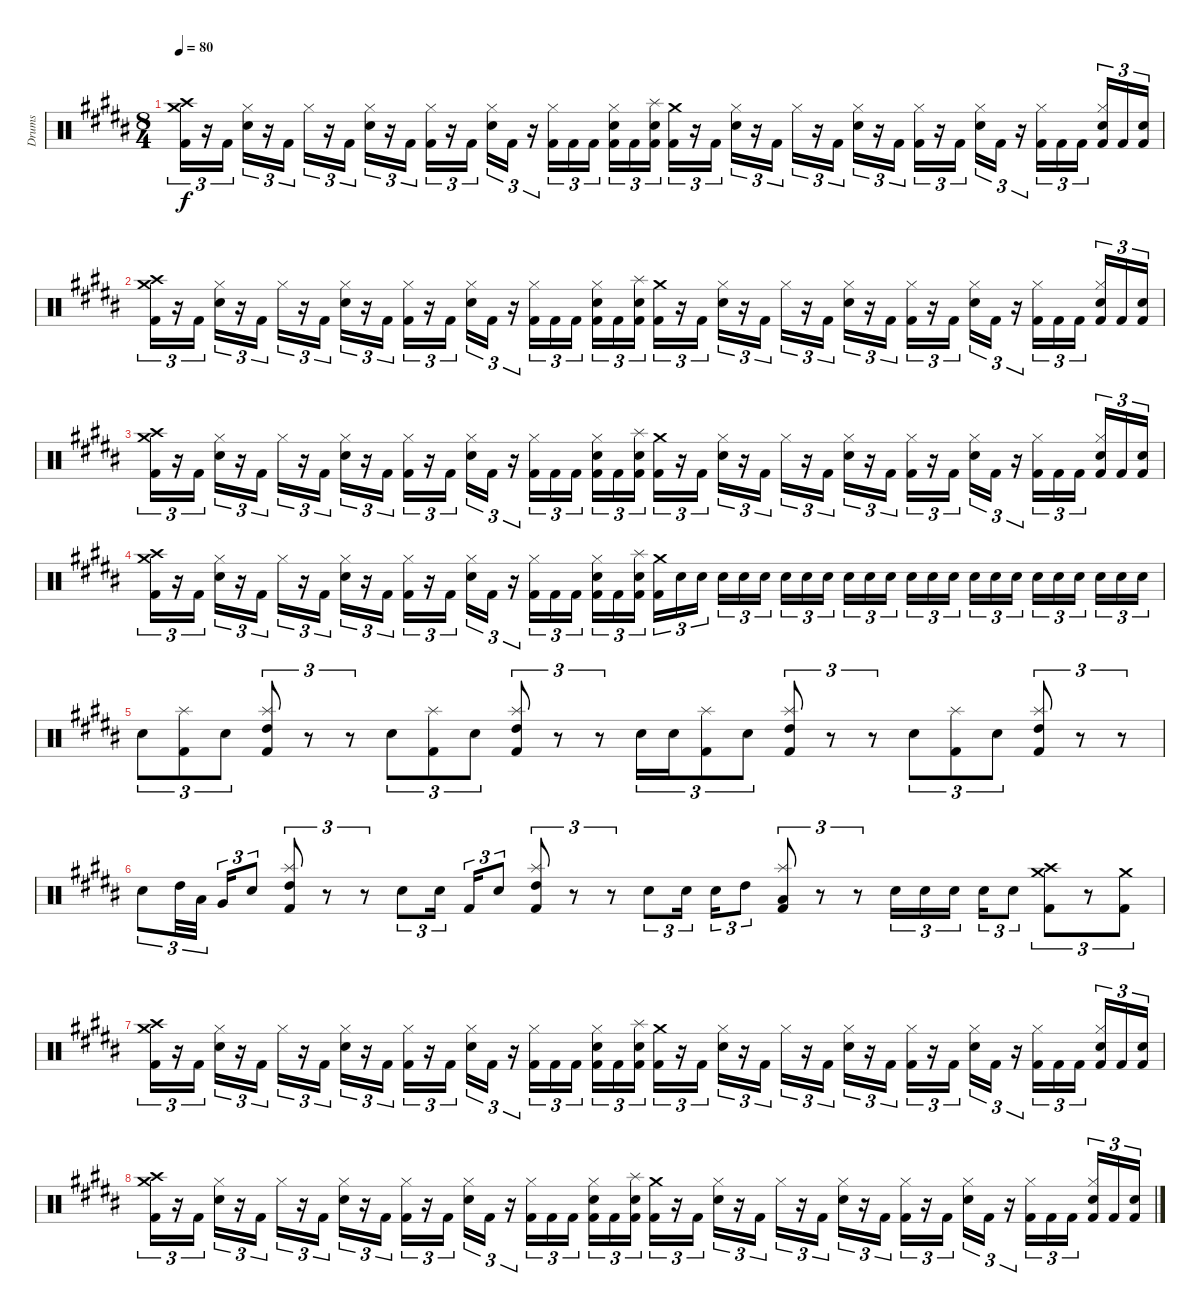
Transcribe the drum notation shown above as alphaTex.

\track ("Drums" "Drums") {instrument percussion}
\staff {score}
\articulation defaults
\ts (8 4)
\tempo 80
\clef neutral
\ks g#minor
("Crash medium (hit)" "Crash high (hit)" "Kick (hit) 2").16{tu (3 2) dy f} r.16{tu (3 2)} "Kick (hit) 2".16{tu (3 2)} ("Hi-Hat (closed)" "Snare (hit) 2").16{tu (3 2)} r.16{tu (3 2)} "Kick (hit) 2".16{tu (3 2)} "Hi-Hat (closed)".16{tu (3 2)} r.16{tu (3 2)} "Kick (hit) 2".16{tu (3 2)} ("Hi-Hat (closed)" "Snare (hit) 2").16{tu (3 2)} r.16{tu (3 2)} "Kick (hit) 2".16{tu (3 2)} ("Hi-Hat (closed)" "Kick (hit) 2").16{tu (3 2)} r.16{tu (3 2)} "Kick (hit) 2".16{tu (3 2)} ("Hi-Hat (closed)" "Snare (hit) 2").16{tu (3 2)} "Kick (hit) 2".16{tu (3 2)} r.16{tu (3 2)} ("Hi-Hat (closed)" "Kick (hit) 2").16{tu (3 2)} "Kick (hit) 2".16{tu (3 2)} "Kick (hit) 2".16{tu (3 2)} ("Hi-Hat (closed)" "Snare (hit) 2" "Kick (hit) 2").16{tu (3 2)} "Kick (hit) 2".16{tu (3 2)} ("Splash (hit)" "Snare (hit) 2" "Kick (hit) 2").16{tu (3 2)} ("Crash medium (hit)" "Kick (hit) 2").16{tu (3 2)} r.16{tu (3 2)} "Kick (hit) 2".16{tu (3 2)} ("Hi-Hat (closed)" "Snare (hit) 2").16{tu (3 2)} r.16{tu (3 2)} "Kick (hit) 2".16{tu (3 2)} "Hi-Hat (closed)".16{tu (3 2)} r.16{tu (3 2)} "Kick (hit) 2".16{tu (3 2)} ("Hi-Hat (closed)" "Snare (hit) 2").16{tu (3 2)} r.16{tu (3 2)} "Kick (hit) 2".16{tu (3 2)} ("Hi-Hat (closed)" "Kick (hit) 2").16{tu (3 2)} r.16{tu (3 2)} "Kick (hit) 2".16{tu (3 2)} ("Hi-Hat (closed)" "Snare (hit) 2").16{tu (3 2)} "Kick (hit) 2".16{tu (3 2)} r.16{tu (3 2)} ("Hi-Hat (closed)" "Kick (hit) 2").16{tu (3 2)} "Kick (hit) 2".16{tu (3 2)} "Kick (hit) 2".16{tu (3 2)} ("Hi-Hat (closed)" "Snare (hit) 2" "Kick (hit) 2").16{tu (3 2)} "Kick (hit) 2".16{tu (3 2)} ("Snare (hit) 2" "Kick (hit) 2").16{tu (3 2)} |
("Crash medium (hit)" "Crash high (hit)" "Kick (hit) 2").16{tu (3 2)} r.16{tu (3 2)} "Kick (hit) 2".16{tu (3 2)} ("Hi-Hat (closed)" "Snare (hit) 2").16{tu (3 2)} r.16{tu (3 2)} "Kick (hit) 2".16{tu (3 2)} "Hi-Hat (closed)".16{tu (3 2)} r.16{tu (3 2)} "Kick (hit) 2".16{tu (3 2)} ("Hi-Hat (closed)" "Snare (hit) 2").16{tu (3 2)} r.16{tu (3 2)} "Kick (hit) 2".16{tu (3 2)} ("Hi-Hat (closed)" "Kick (hit) 2").16{tu (3 2)} r.16{tu (3 2)} "Kick (hit) 2".16{tu (3 2)} ("Hi-Hat (closed)" "Snare (hit) 2").16{tu (3 2)} "Kick (hit) 2".16{tu (3 2)} r.16{tu (3 2)} ("Hi-Hat (closed)" "Kick (hit) 2").16{tu (3 2)} "Kick (hit) 2".16{tu (3 2)} "Kick (hit) 2".16{tu (3 2)} ("Hi-Hat (closed)" "Snare (hit) 2" "Kick (hit) 2").16{tu (3 2)} "Kick (hit) 2".16{tu (3 2)} ("Splash (hit)" "Snare (hit) 2" "Kick (hit) 2").16{tu (3 2)} ("Crash medium (hit)" "Kick (hit) 2").16{tu (3 2)} r.16{tu (3 2)} "Kick (hit) 2".16{tu (3 2)} ("Hi-Hat (closed)" "Snare (hit) 2").16{tu (3 2)} r.16{tu (3 2)} "Kick (hit) 2".16{tu (3 2)} "Hi-Hat (closed)".16{tu (3 2)} r.16{tu (3 2)} "Kick (hit) 2".16{tu (3 2)} ("Hi-Hat (closed)" "Snare (hit) 2").16{tu (3 2)} r.16{tu (3 2)} "Kick (hit) 2".16{tu (3 2)} ("Hi-Hat (closed)" "Kick (hit) 2").16{tu (3 2)} r.16{tu (3 2)} "Kick (hit) 2".16{tu (3 2)} ("Hi-Hat (closed)" "Snare (hit) 2").16{tu (3 2)} "Kick (hit) 2".16{tu (3 2)} r.16{tu (3 2)} ("Hi-Hat (closed)" "Kick (hit) 2").16{tu (3 2)} "Kick (hit) 2".16{tu (3 2)} "Kick (hit) 2".16{tu (3 2)} ("Hi-Hat (closed)" "Snare (hit) 2" "Kick (hit) 2").16{tu (3 2)} "Kick (hit) 2".16{tu (3 2)} ("Snare (hit) 2" "Kick (hit) 2").16{tu (3 2)} |
("Crash medium (hit)" "Crash high (hit)" "Kick (hit) 2").16{tu (3 2)} r.16{tu (3 2)} "Kick (hit) 2".16{tu (3 2)} ("Hi-Hat (closed)" "Snare (hit) 2").16{tu (3 2)} r.16{tu (3 2)} "Kick (hit) 2".16{tu (3 2)} "Hi-Hat (closed)".16{tu (3 2)} r.16{tu (3 2)} "Kick (hit) 2".16{tu (3 2)} ("Hi-Hat (closed)" "Snare (hit) 2").16{tu (3 2)} r.16{tu (3 2)} "Kick (hit) 2".16{tu (3 2)} ("Hi-Hat (closed)" "Kick (hit) 2").16{tu (3 2)} r.16{tu (3 2)} "Kick (hit) 2".16{tu (3 2)} ("Hi-Hat (closed)" "Snare (hit) 2").16{tu (3 2)} "Kick (hit) 2".16{tu (3 2)} r.16{tu (3 2)} ("Hi-Hat (closed)" "Kick (hit) 2").16{tu (3 2)} "Kick (hit) 2".16{tu (3 2)} "Kick (hit) 2".16{tu (3 2)} ("Hi-Hat (closed)" "Snare (hit) 2" "Kick (hit) 2").16{tu (3 2)} "Kick (hit) 2".16{tu (3 2)} ("Splash (hit)" "Snare (hit) 2" "Kick (hit) 2").16{tu (3 2)} ("Crash medium (hit)" "Kick (hit) 2").16{tu (3 2)} r.16{tu (3 2)} "Kick (hit) 2".16{tu (3 2)} ("Hi-Hat (closed)" "Snare (hit) 2").16{tu (3 2)} r.16{tu (3 2)} "Kick (hit) 2".16{tu (3 2)} "Hi-Hat (closed)".16{tu (3 2)} r.16{tu (3 2)} "Kick (hit) 2".16{tu (3 2)} ("Hi-Hat (closed)" "Snare (hit) 2").16{tu (3 2)} r.16{tu (3 2)} "Kick (hit) 2".16{tu (3 2)} ("Hi-Hat (closed)" "Kick (hit) 2").16{tu (3 2)} r.16{tu (3 2)} "Kick (hit) 2".16{tu (3 2)} ("Hi-Hat (closed)" "Snare (hit) 2").16{tu (3 2)} "Kick (hit) 2".16{tu (3 2)} r.16{tu (3 2)} ("Hi-Hat (closed)" "Kick (hit) 2").16{tu (3 2)} "Kick (hit) 2".16{tu (3 2)} "Kick (hit) 2".16{tu (3 2)} ("Hi-Hat (closed)" "Snare (hit) 2" "Kick (hit) 2").16{tu (3 2)} "Kick (hit) 2".16{tu (3 2)} ("Snare (hit) 2" "Kick (hit) 2").16{tu (3 2)} |
("Crash medium (hit)" "Crash high (hit)" "Kick (hit) 2").16{tu (3 2)} r.16{tu (3 2)} "Kick (hit) 2".16{tu (3 2)} ("Hi-Hat (closed)" "Snare (hit) 2").16{tu (3 2)} r.16{tu (3 2)} "Kick (hit) 2".16{tu (3 2)} "Hi-Hat (closed)".16{tu (3 2)} r.16{tu (3 2)} "Kick (hit) 2".16{tu (3 2)} ("Hi-Hat (closed)" "Snare (hit) 2").16{tu (3 2)} r.16{tu (3 2)} "Kick (hit) 2".16{tu (3 2)} ("Hi-Hat (closed)" "Kick (hit) 2").16{tu (3 2)} r.16{tu (3 2)} "Kick (hit) 2".16{tu (3 2)} ("Hi-Hat (closed)" "Snare (hit) 2").16{tu (3 2)} "Kick (hit) 2".16{tu (3 2)} r.16{tu (3 2)} ("Hi-Hat (closed)" "Kick (hit) 2").16{tu (3 2)} "Kick (hit) 2".16{tu (3 2)} "Kick (hit) 2".16{tu (3 2)} ("Hi-Hat (closed)" "Snare (hit) 2" "Kick (hit) 2").16{tu (3 2)} "Kick (hit) 2".16{tu (3 2)} ("Splash (hit)" "Snare (hit) 2" "Kick (hit) 2").16{tu (3 2)} ("Crash medium (hit)" "Kick (hit) 2").16{tu (3 2)} "Snare (hit) 2".16{tu (3 2)} "Snare (hit) 2".16{tu (3 2)} "Snare (hit) 2".16{tu (3 2)} "Snare (hit) 2".16{tu (3 2)} "Snare (hit) 2".16{tu (3 2)} "Snare (hit) 2".16{tu (3 2)} "Snare (hit) 2".16{tu (3 2)} "Snare (hit) 2".16{tu (3 2)} "Snare (hit) 2".16{tu (3 2)} "Snare (hit) 2".16{tu (3 2)} "Snare (hit) 2".16{tu (3 2)} "Snare (hit) 2".16{tu (3 2)} "Snare (hit) 2".16{tu (3 2)} "Snare (hit) 2".16{tu (3 2)} "Snare (hit) 2".16{tu (3 2)} "Snare (hit) 2".16{tu (3 2)} "Snare (hit) 2".16{tu (3 2)} "Snare (hit) 2".16{tu (3 2)} "Snare (hit) 2".16{tu (3 2)} "Snare (hit) 2".16{tu (3 2)} "Snare (hit) 2".16{tu (3 2)} "Snare (hit) 2".16{tu (3 2)} "Snare (hit) 2".16{tu (3 2)} |
"Snare (hit) 2".8{tu (3 2)} ("Splash (hit)" "Kick (hit) 2").8{tu (3 2)} "Snare (hit) 2".8{tu (3 2)} ("Splash (hit)" "High Tom (hit)" "Kick (hit) 2").8{tu (3 2)} r.8{tu (3 2)} r.8{tu (3 2)} "Snare (hit) 2".8{tu (3 2)} ("Splash (hit)" "Kick (hit) 2").8{tu (3 2)} "Snare (hit) 2".8{tu (3 2)} ("Splash (hit)" "High Tom (hit)" "Kick (hit) 2").8{tu (3 2)} r.8{tu (3 2)} r.8{tu (3 2)} "Snare (hit) 2".16{tu (3 2)} "Snare (hit) 2".16{tu (3 2)} ("Splash (hit)" "Kick (hit) 2").8{tu (3 2)} "Snare (hit) 2".8{tu (3 2)} ("Splash (hit)" "High Tom (hit)" "Kick (hit) 2").8{tu (3 2)} r.8{tu (3 2)} r.8{tu (3 2)} "Snare (hit) 2".8{tu (3 2)} ("Splash (hit)" "Kick (hit) 2").8{tu (3 2)} "Snare (hit) 2".8{tu (3 2)} ("Splash (hit)" "High Tom (hit)" "Kick (hit) 2").8{tu (3 2)} r.8{tu (3 2)} r.8{tu (3 2)} |
"Snare (hit) 2".8{tu (3 2)} "High Tom (hit)".32{tu (3 2)} "Low Tom (hit)".32{tu (3 2)} "Very Low Tom (hit)".16{tu (3 2)} "Snare (hit) 2".8{tu (3 2)} ("Splash (hit)" "High Tom (hit)" "Kick (hit) 2").8{tu (3 2)} r.8{tu (3 2)} r.8{tu (3 2)} "Snare (hit) 2".8{tu (3 2)} "Snare (hit) 2".16{tu (3 2)} "Kick (hit) 2".16{tu (3 2)} "Snare (hit) 2".8{tu (3 2)} ("Splash (hit)" "High Tom (hit)" "Kick (hit) 2").8{tu (3 2)} r.8{tu (3 2)} r.8{tu (3 2)} "Snare (hit) 2".8{tu (3 2)} "Electric Snare (hit)".16{tu (3 2)} "Snare (hit) 2".16{tu (3 2)} "High Tom (hit)".8{tu (3 2)} ("Splash (hit)" "Low Tom (hit)" "Kick (hit) 2").8{tu (3 2)} r.8{tu (3 2)} r.8{tu (3 2)} "Snare (hit) 2".16{tu (3 2)} "Snare (hit) 2".16{tu (3 2)} "Snare (hit) 2".16{tu (3 2)} "Snare (hit) 2".16{tu (3 2)} "Snare (hit) 2".8{tu (3 2)} ("Crash medium (hit)" "Crash high (hit)" "Kick (hit) 2").8{tu (3 2)} r.8{tu (3 2)} ("Crash medium (hit)" "Kick (hit) 2").8{tu (3 2)} |
("Crash medium (hit)" "Crash high (hit)" "Kick (hit) 2").16{tu (3 2)} r.16{tu (3 2)} "Kick (hit) 2".16{tu (3 2)} ("Hi-Hat (closed)" "Snare (hit) 2").16{tu (3 2)} r.16{tu (3 2)} "Kick (hit) 2".16{tu (3 2)} "Hi-Hat (closed)".16{tu (3 2)} r.16{tu (3 2)} "Kick (hit) 2".16{tu (3 2)} ("Hi-Hat (closed)" "Snare (hit) 2").16{tu (3 2)} r.16{tu (3 2)} "Kick (hit) 2".16{tu (3 2)} ("Hi-Hat (closed)" "Kick (hit) 2").16{tu (3 2)} r.16{tu (3 2)} "Kick (hit) 2".16{tu (3 2)} ("Hi-Hat (closed)" "Snare (hit) 2").16{tu (3 2)} "Kick (hit) 2".16{tu (3 2)} r.16{tu (3 2)} ("Hi-Hat (closed)" "Kick (hit) 2").16{tu (3 2)} "Kick (hit) 2".16{tu (3 2)} "Kick (hit) 2".16{tu (3 2)} ("Hi-Hat (closed)" "Snare (hit) 2" "Kick (hit) 2").16{tu (3 2)} "Kick (hit) 2".16{tu (3 2)} ("Splash (hit)" "Snare (hit) 2" "Kick (hit) 2").16{tu (3 2)} ("Crash medium (hit)" "Kick (hit) 2").16{tu (3 2)} r.16{tu (3 2)} "Kick (hit) 2".16{tu (3 2)} ("Hi-Hat (closed)" "Snare (hit) 2").16{tu (3 2)} r.16{tu (3 2)} "Kick (hit) 2".16{tu (3 2)} "Hi-Hat (closed)".16{tu (3 2)} r.16{tu (3 2)} "Kick (hit) 2".16{tu (3 2)} ("Hi-Hat (closed)" "Snare (hit) 2").16{tu (3 2)} r.16{tu (3 2)} "Kick (hit) 2".16{tu (3 2)} ("Hi-Hat (closed)" "Kick (hit) 2").16{tu (3 2)} r.16{tu (3 2)} "Kick (hit) 2".16{tu (3 2)} ("Hi-Hat (closed)" "Snare (hit) 2").16{tu (3 2)} "Kick (hit) 2".16{tu (3 2)} r.16{tu (3 2)} ("Hi-Hat (closed)" "Kick (hit) 2").16{tu (3 2)} "Kick (hit) 2".16{tu (3 2)} "Kick (hit) 2".16{tu (3 2)} ("Hi-Hat (closed)" "Snare (hit) 2" "Kick (hit) 2").16{tu (3 2)} "Kick (hit) 2".16{tu (3 2)} ("Snare (hit) 2" "Kick (hit) 2").16{tu (3 2)} |
("Crash medium (hit)" "Crash high (hit)" "Kick (hit) 2").16{tu (3 2)} r.16{tu (3 2)} "Kick (hit) 2".16{tu (3 2)} ("Hi-Hat (closed)" "Snare (hit) 2").16{tu (3 2)} r.16{tu (3 2)} "Kick (hit) 2".16{tu (3 2)} "Hi-Hat (closed)".16{tu (3 2)} r.16{tu (3 2)} "Kick (hit) 2".16{tu (3 2)} ("Hi-Hat (closed)" "Snare (hit) 2").16{tu (3 2)} r.16{tu (3 2)} "Kick (hit) 2".16{tu (3 2)} ("Hi-Hat (closed)" "Kick (hit) 2").16{tu (3 2)} r.16{tu (3 2)} "Kick (hit) 2".16{tu (3 2)} ("Hi-Hat (closed)" "Snare (hit) 2").16{tu (3 2)} "Kick (hit) 2".16{tu (3 2)} r.16{tu (3 2)} ("Hi-Hat (closed)" "Kick (hit) 2").16{tu (3 2)} "Kick (hit) 2".16{tu (3 2)} "Kick (hit) 2".16{tu (3 2)} ("Hi-Hat (closed)" "Snare (hit) 2" "Kick (hit) 2").16{tu (3 2)} "Kick (hit) 2".16{tu (3 2)} ("Splash (hit)" "Snare (hit) 2" "Kick (hit) 2").16{tu (3 2)} ("Crash medium (hit)" "Kick (hit) 2").16{tu (3 2)} r.16{tu (3 2)} "Kick (hit) 2".16{tu (3 2)} ("Hi-Hat (closed)" "Snare (hit) 2").16{tu (3 2)} r.16{tu (3 2)} "Kick (hit) 2".16{tu (3 2)} "Hi-Hat (closed)".16{tu (3 2)} r.16{tu (3 2)} "Kick (hit) 2".16{tu (3 2)} ("Hi-Hat (closed)" "Snare (hit) 2").16{tu (3 2)} r.16{tu (3 2)} "Kick (hit) 2".16{tu (3 2)} ("Hi-Hat (closed)" "Kick (hit) 2").16{tu (3 2)} r.16{tu (3 2)} "Kick (hit) 2".16{tu (3 2)} ("Hi-Hat (closed)" "Snare (hit) 2").16{tu (3 2)} "Kick (hit) 2".16{tu (3 2)} r.16{tu (3 2)} ("Hi-Hat (closed)" "Kick (hit) 2").16{tu (3 2)} "Kick (hit) 2".16{tu (3 2)} "Kick (hit) 2".16{tu (3 2)} ("Hi-Hat (closed)" "Snare (hit) 2" "Kick (hit) 2").16{tu (3 2)} "Kick (hit) 2".16{tu (3 2)} ("Snare (hit) 2" "Kick (hit) 2").16{tu (3 2)}
